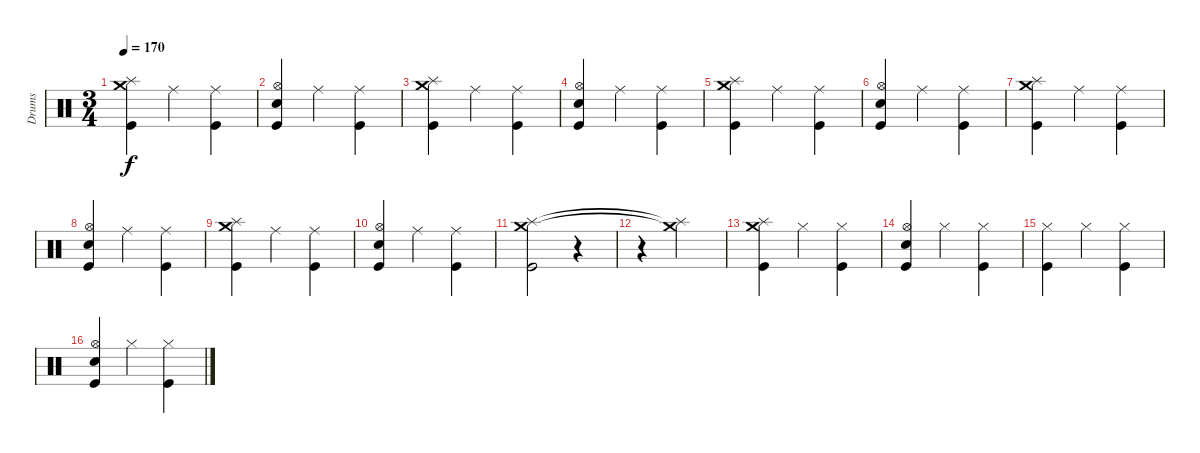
\track ("Drums" "Drums") {instrument percussion}
\staff {score}
\articulation defaults
\ts (3 4)
\tempo 170
\clef neutral
\ks c
("Splash (hit)" "Crash medium (hit)" "Kick (hit)").4{dy f} "Ride (middle)".4 ("Ride (middle)" "Kick (hit)").4 |
("Hi-Hat (open)" "Electric Snare (hit)" "Kick (hit)").4 "Ride (middle)".4 ("Ride (middle)" "Kick (hit)").4 |
("Splash (hit)" "Crash medium (hit)" "Kick (hit)").4 "Ride (middle)".4 ("Ride (middle)" "Kick (hit)").4 |
("Hi-Hat (open)" "Electric Snare (hit)" "Kick (hit)").4 "Ride (middle)".4 ("Ride (middle)" "Kick (hit)").4 |
("Splash (hit)" "Crash medium (hit)" "Kick (hit)").4 "Ride (middle)".4 ("Ride (middle)" "Kick (hit)").4 |
("Hi-Hat (open)" "Electric Snare (hit)" "Kick (hit)").4 "Ride (middle)".4 ("Ride (middle)" "Kick (hit)").4 |
("Splash (hit)" "Crash medium (hit)" "Kick (hit)").4 "Ride (middle)".4 ("Ride (middle)" "Kick (hit)").4 |
("Hi-Hat (open)" "Electric Snare (hit)" "Kick (hit)").4 "Ride (middle)".4 ("Ride (middle)" "Kick (hit)").4 |
("Splash (hit)" "Crash medium (hit)" "Kick (hit)").4 "Ride (middle)".4 ("Ride (middle)" "Kick (hit)").4 |
("Hi-Hat (open)" "Electric Snare (hit)" "Kick (hit)").4 "Ride (middle)".4 ("Ride (middle)" "Kick (hit)").4 |
("Splash (hit)" "Crash medium (hit)" "Kick (hit)").2 r.4 |
r.4 ("Splash (hit)"{t} "Crash medium (hit)"{t}).2 |
("Splash (hit)" "Crash medium (hit)" "Kick (hit)").4 "Hi-Hat (closed)".4 ("Hi-Hat (closed)" "Kick (hit)").4 |
("Hi-Hat (open)" "Electric Snare (hit)" "Kick (hit)").4 "Hi-Hat (closed)".4 ("Hi-Hat (closed)" "Kick (hit)").4 |
("Hi-Hat (closed)" "Kick (hit)").4 "Hi-Hat (closed)".4 ("Hi-Hat (closed)" "Kick (hit)").4 |
("Hi-Hat (open)" "Electric Snare (hit)" "Kick (hit)").4 "Hi-Hat (closed)".4 ("Hi-Hat (closed)" "Kick (hit)").4
